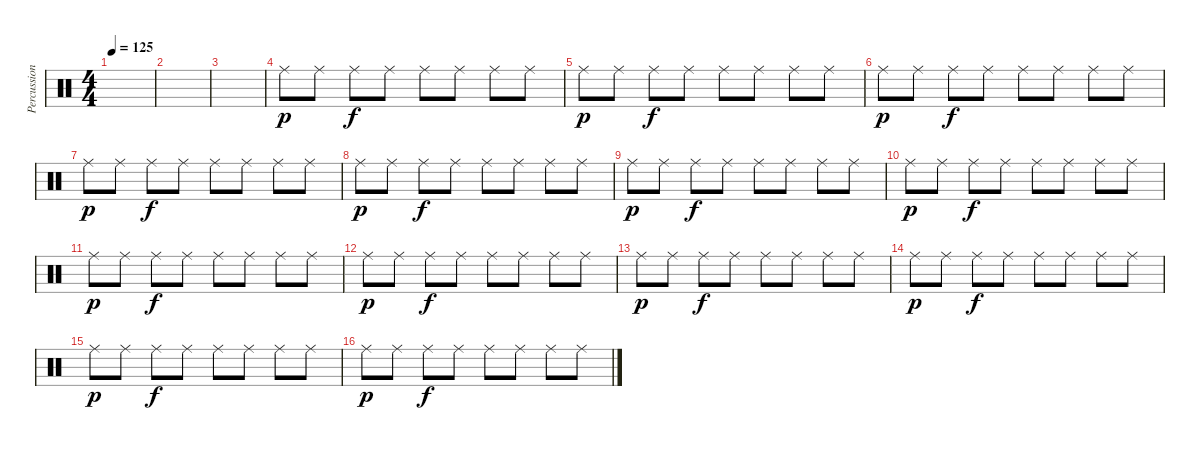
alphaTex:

\track ("Percussion" "Percussion") {instrument percussion}
\staff {score}
\articulation defaults
\ts (4 4)
\tempo 125
\clef neutral
\ks c
|
|
|
"Ride (middle)".8{dy p} "Ride (middle)".8 "Ride (middle)".8{dy f} "Ride (middle)".8 "Ride (middle)".8 "Ride (middle)".8 "Ride (middle)".8 "Ride (middle)".8 |
"Ride (middle)".8{dy p} "Ride (middle)".8 "Ride (middle)".8{dy f} "Ride (middle)".8 "Ride (middle)".8 "Ride (middle)".8 "Ride (middle)".8 "Ride (middle)".8 |
"Ride (middle)".8{dy p} "Ride (middle)".8 "Ride (middle)".8{dy f} "Ride (middle)".8 "Ride (middle)".8 "Ride (middle)".8 "Ride (middle)".8 "Ride (middle)".8 |
"Ride (middle)".8{dy p} "Ride (middle)".8 "Ride (middle)".8{dy f} "Ride (middle)".8 "Ride (middle)".8 "Ride (middle)".8 "Ride (middle)".8 "Ride (middle)".8 |
"Ride (middle)".8{dy p} "Ride (middle)".8 "Ride (middle)".8{dy f} "Ride (middle)".8 "Ride (middle)".8 "Ride (middle)".8 "Ride (middle)".8 "Ride (middle)".8 |
"Ride (middle)".8{dy p} "Ride (middle)".8 "Ride (middle)".8{dy f} "Ride (middle)".8 "Ride (middle)".8 "Ride (middle)".8 "Ride (middle)".8 "Ride (middle)".8 |
"Ride (middle)".8{dy p} "Ride (middle)".8 "Ride (middle)".8{dy f} "Ride (middle)".8 "Ride (middle)".8 "Ride (middle)".8 "Ride (middle)".8 "Ride (middle)".8 |
"Ride (middle)".8{dy p} "Ride (middle)".8 "Ride (middle)".8{dy f} "Ride (middle)".8 "Ride (middle)".8 "Ride (middle)".8 "Ride (middle)".8 "Ride (middle)".8 |
"Ride (middle)".8{dy p} "Ride (middle)".8 "Ride (middle)".8{dy f} "Ride (middle)".8 "Ride (middle)".8 "Ride (middle)".8 "Ride (middle)".8 "Ride (middle)".8 |
"Ride (middle)".8{dy p} "Ride (middle)".8 "Ride (middle)".8{dy f} "Ride (middle)".8 "Ride (middle)".8 "Ride (middle)".8 "Ride (middle)".8 "Ride (middle)".8 |
"Ride (middle)".8{dy p} "Ride (middle)".8 "Ride (middle)".8{dy f} "Ride (middle)".8 "Ride (middle)".8 "Ride (middle)".8 "Ride (middle)".8 "Ride (middle)".8 |
"Ride (middle)".8{dy p} "Ride (middle)".8 "Ride (middle)".8{dy f} "Ride (middle)".8 "Ride (middle)".8 "Ride (middle)".8 "Ride (middle)".8 "Ride (middle)".8 |
"Ride (middle)".8{dy p} "Ride (middle)".8 "Ride (middle)".8{dy f} "Ride (middle)".8 "Ride (middle)".8 "Ride (middle)".8 "Ride (middle)".8 "Ride (middle)".8
